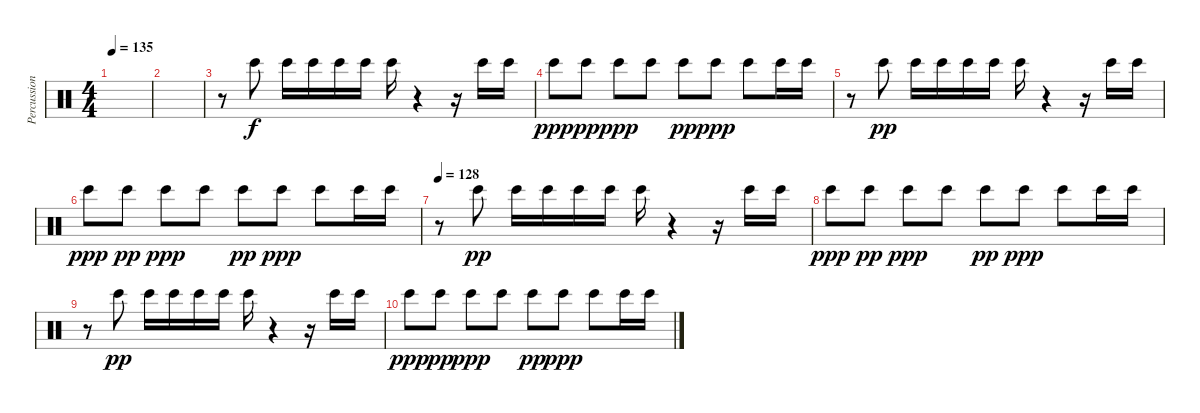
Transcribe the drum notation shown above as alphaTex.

\track ("Percussion" "Percussion") {instrument percussion}
\staff {score}
\articulation defaults
\ts (4 4)
\tempo 135
\clef neutral
\ks c
|
|
r.8{volume 3} "Bongo High (hit)".8 "Bongo High (hit)".16 "Bongo High (hit)".16 "Bongo High (hit)".16 "Bongo High (hit)".16 "Bongo High (hit)".16 r.4 r.16 "Bongo High (hit)".16 "Bongo High (hit)".16 |
"Bongo High (hit)".8{dy ppp} "Bongo High (hit)".8{dy pp} "Bongo High (hit)".8{dy ppp} "Bongo High (hit)".8 "Bongo High (hit)".8{dy pp} "Bongo High (hit)".8{dy ppp} "Bongo High (hit)".8 "Bongo High (hit)".16 "Bongo High (hit)".16 |
r.8 "Bongo High (hit)".8{dy pp} "Bongo High (hit)".16 "Bongo High (hit)".16 "Bongo High (hit)".16 "Bongo High (hit)".16 "Bongo High (hit)".16 r.4 r.16 "Bongo High (hit)".16 "Bongo High (hit)".16 |
"Bongo High (hit)".8{dy ppp} "Bongo High (hit)".8{dy pp} "Bongo High (hit)".8{dy ppp} "Bongo High (hit)".8 "Bongo High (hit)".8{dy pp} "Bongo High (hit)".8{dy ppp} "Bongo High (hit)".8 "Bongo High (hit)".16 "Bongo High (hit)".16 |
\tempo 128
r.8 "Bongo High (hit)".8{dy pp} "Bongo High (hit)".16 "Bongo High (hit)".16 "Bongo High (hit)".16 "Bongo High (hit)".16 "Bongo High (hit)".16 r.4 r.16 "Bongo High (hit)".16 "Bongo High (hit)".16 |
"Bongo High (hit)".8{dy ppp} "Bongo High (hit)".8{dy pp} "Bongo High (hit)".8{dy ppp} "Bongo High (hit)".8 "Bongo High (hit)".8{dy pp} "Bongo High (hit)".8{dy ppp} "Bongo High (hit)".8 "Bongo High (hit)".16 "Bongo High (hit)".16 |
r.8 "Bongo High (hit)".8{dy pp} "Bongo High (hit)".16 "Bongo High (hit)".16 "Bongo High (hit)".16 "Bongo High (hit)".16 "Bongo High (hit)".16 r.4 r.16 "Bongo High (hit)".16 "Bongo High (hit)".16 |
"Bongo High (hit)".8{dy ppp} "Bongo High (hit)".8{dy pp} "Bongo High (hit)".8{dy ppp} "Bongo High (hit)".8 "Bongo High (hit)".8{dy pp} "Bongo High (hit)".8{dy ppp} "Bongo High (hit)".8 "Bongo High (hit)".16 "Bongo High (hit)".16
